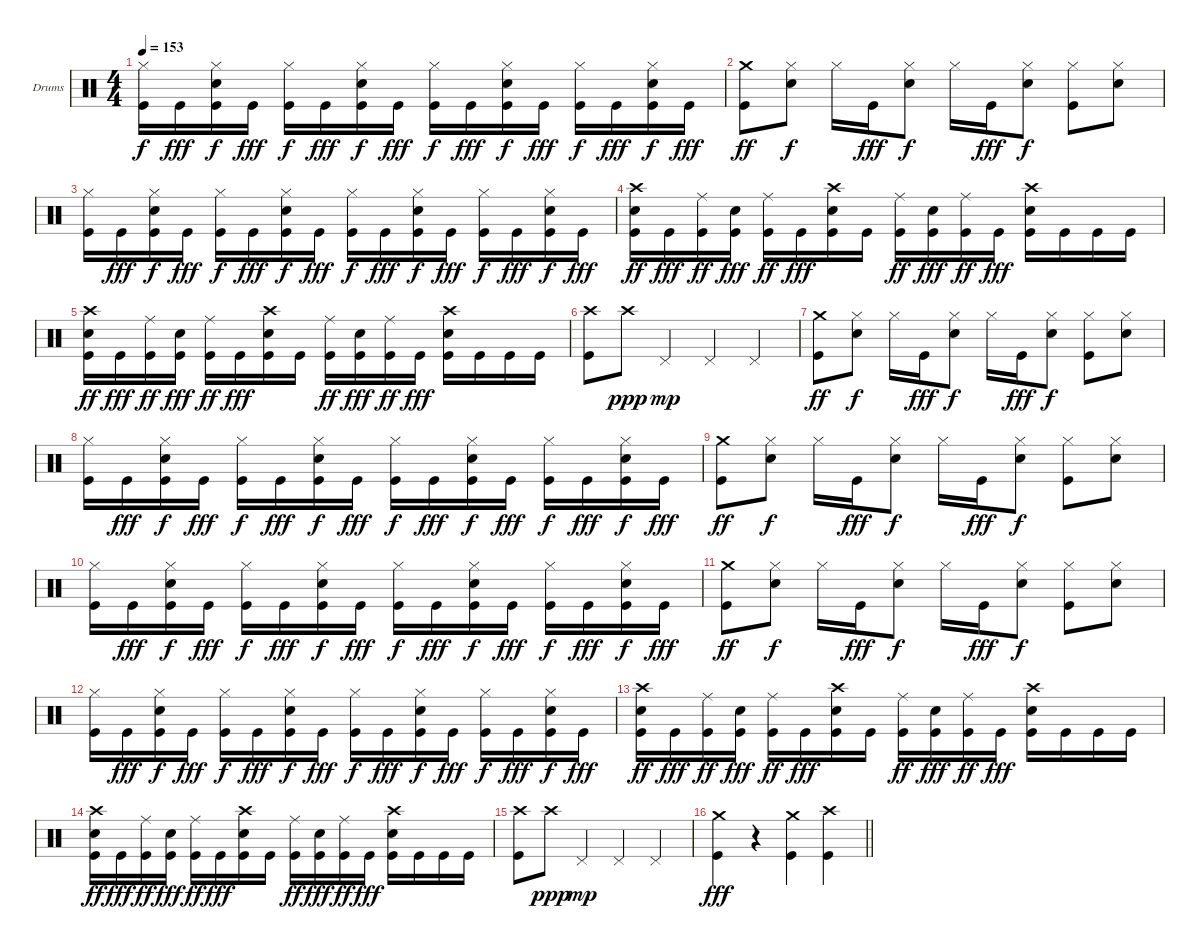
\bracketExtendMode groupsimilarinstruments
\firstSystemTrackNameOrientation horizontal
\otherSystemsTrackNameOrientation horizontal
\track ("Drumkit" "Drums") {instrument percussion}
\staff {score}
\articulation defaults
\ts (4 4)
\tempo 153
\clef neutral
\ks c
("Hi-Hat (closed)" "Kick (hit)").16{dy f} "Kick (hit)".16{dy fff} ("Hi-Hat (closed)" "Snare (hit) 2" "Kick (hit)").16{dy f} "Kick (hit)".16{dy fff} ("Hi-Hat (closed)" "Kick (hit)").16{dy f} "Kick (hit)".16{dy fff} ("Hi-Hat (closed)" "Snare (hit) 2" "Kick (hit)").16{dy f} "Kick (hit)".16{dy fff} ("Hi-Hat (closed)" "Kick (hit)").16{dy f} "Kick (hit)".16{dy fff} ("Hi-Hat (closed)" "Snare (hit) 2" "Kick (hit)").16{dy f} "Kick (hit)".16{dy fff} ("Hi-Hat (closed)" "Kick (hit)").16{dy f} "Kick (hit)".16{dy fff} ("Hi-Hat (closed)" "Snare (hit) 2" "Kick (hit)").16{dy f} "Kick (hit)".16{dy fff} |
("Crash medium (hit)" "Kick (hit)").8{dy ff} ("Hi-Hat (closed)" "Snare (hit) 2").8{dy f} "Hi-Hat (closed)".16 "Kick (hit)".16{dy fff} ("Hi-Hat (closed)" "Snare (hit) 2").8{dy f} "Hi-Hat (closed)".16 "Kick (hit)".16{dy fff} ("Hi-Hat (closed)" "Snare (hit) 2").8{dy f} ("Hi-Hat (closed)" "Kick (hit)").8 ("Hi-Hat (closed)" "Snare (hit) 2").8 |
("Hi-Hat (closed)" "Kick (hit)").16 "Kick (hit)".16{dy fff} ("Hi-Hat (closed)" "Snare (hit) 2" "Kick (hit)").16{dy f} "Kick (hit)".16{dy fff} ("Hi-Hat (closed)" "Kick (hit)").16{dy f} "Kick (hit)".16{dy fff} ("Hi-Hat (closed)" "Snare (hit) 2" "Kick (hit)").16{dy f} "Kick (hit)".16{dy fff} ("Hi-Hat (closed)" "Kick (hit)").16{dy f} "Kick (hit)".16{dy fff} ("Hi-Hat (closed)" "Snare (hit) 2" "Kick (hit)").16{dy f} "Kick (hit)".16{dy fff} ("Hi-Hat (closed)" "Kick (hit)").16{dy f} "Kick (hit)".16{dy fff} ("Hi-Hat (closed)" "Snare (hit) 2" "Kick (hit)").16{dy f} "Kick (hit)".16{dy fff} |
("Crash high (hit)" "Snare (hit) 2" "Kick (hit)").16{dy ff} "Kick (hit)".16{dy fff} ("Ride (middle)" "Kick (hit)").16{dy ff} ("Snare (hit) 2" "Kick (hit)").16{dy fff} ("Ride (middle)" "Kick (hit)").16{dy ff} "Kick (hit)".16{dy fff} ("Crash high (hit)" "Snare (hit) 2" "Kick (hit)").16 "Kick (hit)".16 ("Ride (middle)" "Kick (hit)").16{dy ff} ("Snare (hit) 2" "Kick (hit)").16{dy fff} ("Ride (middle)" "Kick (hit)").16{dy ff} "Kick (hit)".16{dy fff} ("Crash high (hit)" "Snare (hit) 2" "Kick (hit)").16 "Kick (hit)".16 "Kick (hit)".16 "Kick (hit)".16 |
("Crash high (hit)" "Snare (hit) 2" "Kick (hit)").16{dy ff} "Kick (hit)".16{dy fff} ("Ride (middle)" "Kick (hit)").16{dy ff} ("Snare (hit) 2" "Kick (hit)").16{dy fff} ("Ride (middle)" "Kick (hit)").16{dy ff} "Kick (hit)".16{dy fff} ("Crash high (hit)" "Snare (hit) 2" "Kick (hit)").16 "Kick (hit)".16 ("Ride (middle)" "Kick (hit)").16{dy ff} ("Snare (hit) 2" "Kick (hit)").16{dy fff} ("Ride (middle)" "Kick (hit)").16{dy ff} "Kick (hit)".16{dy fff} ("Crash high (hit)" "Snare (hit) 2" "Kick (hit)").16 "Kick (hit)".16 "Kick (hit)".16 "Kick (hit)".16 |
("Crash high (hit)" "Kick (hit)").8 "Crash high (hit)".8{dy ppp} "Pedal Hi-Hat (hit)".4{dy mp} "Pedal Hi-Hat (hit)".4 "Pedal Hi-Hat (hit)".4 |
("Crash medium (hit)" "Kick (hit)").8{dy ff} ("Hi-Hat (closed)" "Snare (hit) 2").8{dy f} "Hi-Hat (closed)".16 "Kick (hit)".16{dy fff} ("Hi-Hat (closed)" "Snare (hit) 2").8{dy f} "Hi-Hat (closed)".16 "Kick (hit)".16{dy fff} ("Hi-Hat (closed)" "Snare (hit) 2").8{dy f} ("Hi-Hat (closed)" "Kick (hit)").8 ("Hi-Hat (closed)" "Snare (hit) 2").8 |
("Hi-Hat (closed)" "Kick (hit)").16 "Kick (hit)".16{dy fff} ("Hi-Hat (closed)" "Snare (hit) 2" "Kick (hit)").16{dy f} "Kick (hit)".16{dy fff} ("Hi-Hat (closed)" "Kick (hit)").16{dy f} "Kick (hit)".16{dy fff} ("Hi-Hat (closed)" "Snare (hit) 2" "Kick (hit)").16{dy f} "Kick (hit)".16{dy fff} ("Hi-Hat (closed)" "Kick (hit)").16{dy f} "Kick (hit)".16{dy fff} ("Hi-Hat (closed)" "Snare (hit) 2" "Kick (hit)").16{dy f} "Kick (hit)".16{dy fff} ("Hi-Hat (closed)" "Kick (hit)").16{dy f} "Kick (hit)".16{dy fff} ("Hi-Hat (closed)" "Snare (hit) 2" "Kick (hit)").16{dy f} "Kick (hit)".16{dy fff} |
("Crash medium (hit)" "Kick (hit)").8{dy ff} ("Hi-Hat (closed)" "Snare (hit) 2").8{dy f} "Hi-Hat (closed)".16 "Kick (hit)".16{dy fff} ("Hi-Hat (closed)" "Snare (hit) 2").8{dy f} "Hi-Hat (closed)".16 "Kick (hit)".16{dy fff} ("Hi-Hat (closed)" "Snare (hit) 2").8{dy f} ("Hi-Hat (closed)" "Kick (hit)").8 ("Hi-Hat (closed)" "Snare (hit) 2").8 |
("Hi-Hat (closed)" "Kick (hit)").16 "Kick (hit)".16{dy fff} ("Hi-Hat (closed)" "Snare (hit) 2" "Kick (hit)").16{dy f} "Kick (hit)".16{dy fff} ("Hi-Hat (closed)" "Kick (hit)").16{dy f} "Kick (hit)".16{dy fff} ("Hi-Hat (closed)" "Snare (hit) 2" "Kick (hit)").16{dy f} "Kick (hit)".16{dy fff} ("Hi-Hat (closed)" "Kick (hit)").16{dy f} "Kick (hit)".16{dy fff} ("Hi-Hat (closed)" "Snare (hit) 2" "Kick (hit)").16{dy f} "Kick (hit)".16{dy fff} ("Hi-Hat (closed)" "Kick (hit)").16{dy f} "Kick (hit)".16{dy fff} ("Hi-Hat (closed)" "Snare (hit) 2" "Kick (hit)").16{dy f} "Kick (hit)".16{dy fff} |
("Crash medium (hit)" "Kick (hit)").8{dy ff} ("Hi-Hat (closed)" "Snare (hit) 2").8{dy f} "Hi-Hat (closed)".16 "Kick (hit)".16{dy fff} ("Hi-Hat (closed)" "Snare (hit) 2").8{dy f} "Hi-Hat (closed)".16 "Kick (hit)".16{dy fff} ("Hi-Hat (closed)" "Snare (hit) 2").8{dy f} ("Hi-Hat (closed)" "Kick (hit)").8 ("Hi-Hat (closed)" "Snare (hit) 2").8 |
("Hi-Hat (closed)" "Kick (hit)").16 "Kick (hit)".16{dy fff} ("Hi-Hat (closed)" "Snare (hit) 2" "Kick (hit)").16{dy f} "Kick (hit)".16{dy fff} ("Hi-Hat (closed)" "Kick (hit)").16{dy f} "Kick (hit)".16{dy fff} ("Hi-Hat (closed)" "Snare (hit) 2" "Kick (hit)").16{dy f} "Kick (hit)".16{dy fff} ("Hi-Hat (closed)" "Kick (hit)").16{dy f} "Kick (hit)".16{dy fff} ("Hi-Hat (closed)" "Snare (hit) 2" "Kick (hit)").16{dy f} "Kick (hit)".16{dy fff} ("Hi-Hat (closed)" "Kick (hit)").16{dy f} "Kick (hit)".16{dy fff} ("Hi-Hat (closed)" "Snare (hit) 2" "Kick (hit)").16{dy f} "Kick (hit)".16{dy fff} |
("Crash high (hit)" "Snare (hit) 2" "Kick (hit)").16{dy ff} "Kick (hit)".16{dy fff} ("Ride (middle)" "Kick (hit)").16{dy ff} ("Snare (hit) 2" "Kick (hit)").16{dy fff} ("Ride (middle)" "Kick (hit)").16{dy ff} "Kick (hit)".16{dy fff} ("Crash high (hit)" "Snare (hit) 2" "Kick (hit)").16 "Kick (hit)".16 ("Ride (middle)" "Kick (hit)").16{dy ff} ("Snare (hit) 2" "Kick (hit)").16{dy fff} ("Ride (middle)" "Kick (hit)").16{dy ff} "Kick (hit)".16{dy fff} ("Crash high (hit)" "Snare (hit) 2" "Kick (hit)").16 "Kick (hit)".16 "Kick (hit)".16 "Kick (hit)".16 |
("Crash high (hit)" "Snare (hit) 2" "Kick (hit)").16{dy ff} "Kick (hit)".16{dy fff} ("Ride (middle)" "Kick (hit)").16{dy ff} ("Snare (hit) 2" "Kick (hit)").16{dy fff} ("Ride (middle)" "Kick (hit)").16{dy ff} "Kick (hit)".16{dy fff} ("Crash high (hit)" "Snare (hit) 2" "Kick (hit)").16 "Kick (hit)".16 ("Ride (middle)" "Kick (hit)").16{dy ff} ("Snare (hit) 2" "Kick (hit)").16{dy fff} ("Ride (middle)" "Kick (hit)").16{dy ff} "Kick (hit)".16{dy fff} ("Crash high (hit)" "Snare (hit) 2" "Kick (hit)").16 "Kick (hit)".16 "Kick (hit)".16 "Kick (hit)".16 |
("Crash high (hit)" "Kick (hit)").8 "Crash high (hit)".8{dy ppp} "Pedal Hi-Hat (hit)".4{dy mp} "Pedal Hi-Hat (hit)".4 "Pedal Hi-Hat (hit)".4 |
\barLineRight lightlight
("Crash medium (hit)" "Kick (hit)").4{dy fff} r.4 ("Crash medium (hit)" "Kick (hit)").4 ("Crash high (hit)" "Kick (hit)").4
